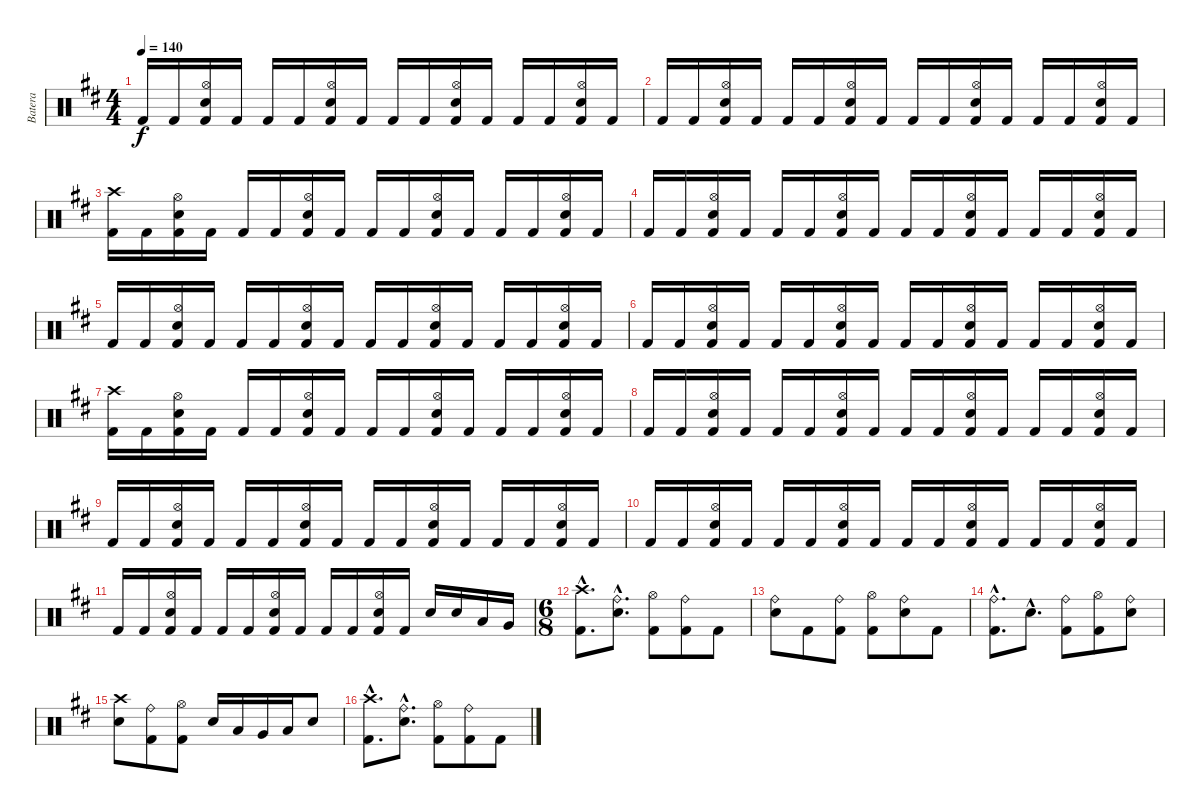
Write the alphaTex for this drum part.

\track ("Batera" "Batera") {instrument percussion}
\staff {score}
\articulation defaults
\ts (4 4)
\tempo 140
\clef neutral
\ks bminor "Kick (hit) 2".16{dy f} "Kick (hit) 2".16
("Hi-Hat (open)" "Electric Snare (hit)" "Kick (hit) 2").16 "Kick (hit) 2".16 "Kick (hit) 2".16 "Kick (hit) 2".16 ("Hi-Hat (open)" "Electric Snare (hit)" "Kick (hit) 2").16 "Kick (hit) 2".16 "Kick (hit) 2".16 "Kick (hit) 2".16 ("Hi-Hat (open)" "Electric Snare (hit)" "Kick (hit) 2").16 "Kick (hit) 2".16 "Kick (hit) 2".16 "Kick (hit) 2".16 ("Hi-Hat (open)" "Electric Snare (hit)" "Kick (hit) 2").16 "Kick (hit) 2".16 |
"Kick (hit) 2".16 "Kick (hit) 2".16 ("Hi-Hat (open)" "Electric Snare (hit)" "Kick (hit) 2").16 "Kick (hit) 2".16 "Kick (hit) 2".16 "Kick (hit) 2".16 ("Hi-Hat (open)" "Electric Snare (hit)" "Kick (hit) 2").16 "Kick (hit) 2".16 "Kick (hit) 2".16 "Kick (hit) 2".16 ("Hi-Hat (open)" "Electric Snare (hit)" "Kick (hit) 2").16 "Kick (hit) 2".16 "Kick (hit) 2".16 "Kick (hit) 2".16 ("Hi-Hat (open)" "Electric Snare (hit)" "Kick (hit) 2").16 "Kick (hit) 2".16 |
("Crash high (hit)" "Kick (hit) 2").16 "Kick (hit) 2".16 ("Hi-Hat (open)" "Electric Snare (hit)" "Kick (hit) 2").16 "Kick (hit) 2".16 "Kick (hit) 2".16 "Kick (hit) 2".16 ("Hi-Hat (open)" "Electric Snare (hit)" "Kick (hit) 2").16 "Kick (hit) 2".16 "Kick (hit) 2".16 "Kick (hit) 2".16 ("Hi-Hat (open)" "Electric Snare (hit)" "Kick (hit) 2").16 "Kick (hit) 2".16 "Kick (hit) 2".16 "Kick (hit) 2".16 ("Hi-Hat (open)" "Electric Snare (hit)" "Kick (hit) 2").16 "Kick (hit) 2".16 |
"Kick (hit) 2".16 "Kick (hit) 2".16 ("Hi-Hat (open)" "Electric Snare (hit)" "Kick (hit) 2").16 "Kick (hit) 2".16 "Kick (hit) 2".16 "Kick (hit) 2".16 ("Hi-Hat (open)" "Electric Snare (hit)" "Kick (hit) 2").16 "Kick (hit) 2".16 "Kick (hit) 2".16 "Kick (hit) 2".16 ("Hi-Hat (open)" "Electric Snare (hit)" "Kick (hit) 2").16 "Kick (hit) 2".16 "Kick (hit) 2".16 "Kick (hit) 2".16 ("Hi-Hat (open)" "Electric Snare (hit)" "Kick (hit) 2").16 "Kick (hit) 2".16 |
"Kick (hit) 2".16 "Kick (hit) 2".16 ("Hi-Hat (open)" "Electric Snare (hit)" "Kick (hit) 2").16 "Kick (hit) 2".16 "Kick (hit) 2".16 "Kick (hit) 2".16 ("Hi-Hat (open)" "Electric Snare (hit)" "Kick (hit) 2").16 "Kick (hit) 2".16 "Kick (hit) 2".16 "Kick (hit) 2".16 ("Hi-Hat (open)" "Electric Snare (hit)" "Kick (hit) 2").16 "Kick (hit) 2".16 "Kick (hit) 2".16 "Kick (hit) 2".16 ("Hi-Hat (open)" "Electric Snare (hit)" "Kick (hit) 2").16 "Kick (hit) 2".16 |
"Kick (hit) 2".16 "Kick (hit) 2".16 ("Hi-Hat (open)" "Electric Snare (hit)" "Kick (hit) 2").16 "Kick (hit) 2".16 "Kick (hit) 2".16 "Kick (hit) 2".16 ("Hi-Hat (open)" "Electric Snare (hit)" "Kick (hit) 2").16 "Kick (hit) 2".16 "Kick (hit) 2".16 "Kick (hit) 2".16 ("Hi-Hat (open)" "Electric Snare (hit)" "Kick (hit) 2").16 "Kick (hit) 2".16 "Kick (hit) 2".16 "Kick (hit) 2".16 ("Hi-Hat (open)" "Electric Snare (hit)" "Kick (hit) 2").16 "Kick (hit) 2".16 |
("Crash high (hit)" "Kick (hit) 2").16 "Kick (hit) 2".16 ("Hi-Hat (open)" "Electric Snare (hit)" "Kick (hit) 2").16 "Kick (hit) 2".16 "Kick (hit) 2".16 "Kick (hit) 2".16 ("Hi-Hat (open)" "Electric Snare (hit)" "Kick (hit) 2").16 "Kick (hit) 2".16 "Kick (hit) 2".16 "Kick (hit) 2".16 ("Hi-Hat (open)" "Electric Snare (hit)" "Kick (hit) 2").16 "Kick (hit) 2".16 "Kick (hit) 2".16 "Kick (hit) 2".16 ("Hi-Hat (open)" "Electric Snare (hit)" "Kick (hit) 2").16 "Kick (hit) 2".16 |
"Kick (hit) 2".16 "Kick (hit) 2".16 ("Hi-Hat (open)" "Electric Snare (hit)" "Kick (hit) 2").16 "Kick (hit) 2".16 "Kick (hit) 2".16 "Kick (hit) 2".16 ("Hi-Hat (open)" "Electric Snare (hit)" "Kick (hit) 2").16 "Kick (hit) 2".16 "Kick (hit) 2".16 "Kick (hit) 2".16 ("Hi-Hat (open)" "Electric Snare (hit)" "Kick (hit) 2").16 "Kick (hit) 2".16 "Kick (hit) 2".16 "Kick (hit) 2".16 ("Hi-Hat (open)" "Electric Snare (hit)" "Kick (hit) 2").16 "Kick (hit) 2".16 |
"Kick (hit) 2".16 "Kick (hit) 2".16 ("Hi-Hat (open)" "Electric Snare (hit)" "Kick (hit) 2").16 "Kick (hit) 2".16 "Kick (hit) 2".16 "Kick (hit) 2".16 ("Hi-Hat (open)" "Electric Snare (hit)" "Kick (hit) 2").16 "Kick (hit) 2".16 "Kick (hit) 2".16 "Kick (hit) 2".16 ("Hi-Hat (open)" "Electric Snare (hit)" "Kick (hit) 2").16 "Kick (hit) 2".16 "Kick (hit) 2".16 "Kick (hit) 2".16 ("Hi-Hat (open)" "Electric Snare (hit)" "Kick (hit) 2").16 "Kick (hit) 2".16 |
"Kick (hit) 2".16 "Kick (hit) 2".16 ("Hi-Hat (open)" "Electric Snare (hit)" "Kick (hit) 2").16 "Kick (hit) 2".16 "Kick (hit) 2".16 "Kick (hit) 2".16 ("Hi-Hat (open)" "Electric Snare (hit)" "Kick (hit) 2").16 "Kick (hit) 2".16 "Kick (hit) 2".16 "Kick (hit) 2".16 ("Hi-Hat (open)" "Electric Snare (hit)" "Kick (hit) 2").16 "Kick (hit) 2".16 "Kick (hit) 2".16 "Kick (hit) 2".16 ("Hi-Hat (open)" "Electric Snare (hit)" "Kick (hit) 2").16 "Kick (hit) 2".16 |
"Kick (hit) 2".16 "Kick (hit) 2".16 ("Hi-Hat (open)" "Electric Snare (hit)" "Kick (hit) 2").16 "Kick (hit) 2".16 "Kick (hit) 2".16 "Kick (hit) 2".16 ("Hi-Hat (open)" "Electric Snare (hit)" "Kick (hit) 2").16 "Kick (hit) 2".16 "Kick (hit) 2".16 "Kick (hit) 2".16 ("Hi-Hat (open)" "Electric Snare (hit)" "Kick (hit) 2").16 "Kick (hit) 2".16 "Electric Snare (hit)".16 "Electric Snare (hit)".16 "Low Floor Tom (hit)".16 "Very Low Tom (hit)".16 |
\ts (6 8)
("Crash high (hit)"{hac} "Kick (hit) 2"{hac}).8{d} ("Ride (bell)"{hac} "Electric Snare (hit)"{hac}).8{d} ("Hi-Hat (open)" "Kick (hit) 2").8 ("Ride (bell)" "Kick (hit) 2").8 "Kick (hit) 2".8 |
("Ride (bell)" "Electric Snare (hit)").8 "Kick (hit) 2".8 ("Ride (bell)" "Kick (hit) 2").8 ("Hi-Hat (open)" "Kick (hit) 2").8 ("Ride (bell)" "Electric Snare (hit)").8 "Kick (hit) 2".8 |
("Ride (bell)"{hac} "Kick (hit) 2"{hac}).8{d} "Electric Snare (hit)"{hac}.8{d} ("Ride (bell)" "Kick (hit) 2").8 ("Hi-Hat (open)" "Kick (hit) 2").8 ("Ride (bell)" "Electric Snare (hit)").8 |
("Crash high (hit)" "Electric Snare (hit)").8 ("Ride (bell)" "Kick (hit) 2").8 ("Hi-Hat (open)" "Kick (hit) 2").8 "Electric Snare (hit)".16 "Low Floor Tom (hit)".16 "Very Low Tom (hit)".16 "Low Floor Tom (hit)".16 "Electric Snare (hit)".8 |
("Crash high (hit)"{hac} "Kick (hit) 2"{hac}).8{d} ("Ride (bell)"{hac} "Electric Snare (hit)"{hac}).8{d} ("Hi-Hat (open)" "Kick (hit) 2").8 ("Ride (bell)" "Kick (hit) 2").8 "Kick (hit) 2".8
